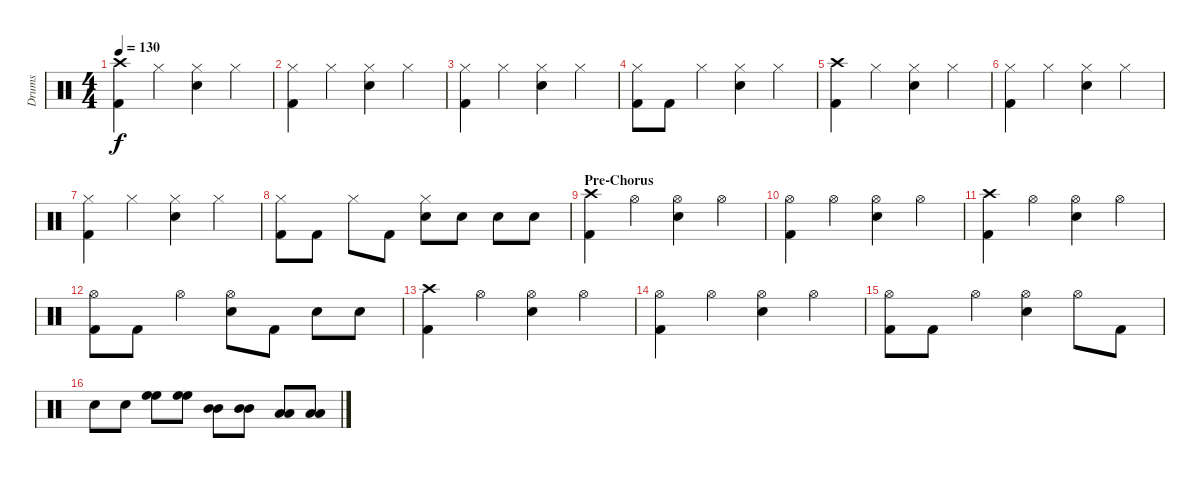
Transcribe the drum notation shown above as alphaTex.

\track ("Drums" "Drums") {instrument percussion}
\staff {score}
\articulation defaults
\ts (4 4)
\tempo 130
\clef neutral
\ks c
("Crash high (hit)" "Kick (hit) 2").4{dy f} "Hi-Hat (closed)".4 ("Hi-Hat (closed)" "Snare (hit) 2").4 "Hi-Hat (closed)".4 |
("Hi-Hat (closed)" "Kick (hit) 2").4 "Hi-Hat (closed)".4 ("Hi-Hat (closed)" "Snare (hit) 2").4 "Hi-Hat (closed)".4 |
("Hi-Hat (closed)" "Kick (hit) 2").4 "Hi-Hat (closed)".4 ("Hi-Hat (closed)" "Snare (hit) 2").4 "Hi-Hat (closed)".4 |
("Hi-Hat (closed)" "Kick (hit) 2").8 "Kick (hit) 2".8 "Hi-Hat (closed)".4 ("Hi-Hat (closed)" "Snare (hit) 2").4 "Hi-Hat (closed)".4 |
("Crash high (hit)" "Kick (hit) 2").4 "Hi-Hat (closed)".4 ("Hi-Hat (closed)" "Snare (hit) 2").4 "Hi-Hat (closed)".4 |
("Hi-Hat (closed)" "Kick (hit) 2").4 "Hi-Hat (closed)".4 ("Hi-Hat (closed)" "Snare (hit) 2").4 "Hi-Hat (closed)".4 |
("Hi-Hat (closed)" "Kick (hit) 2").4 "Hi-Hat (closed)".4 ("Hi-Hat (closed)" "Snare (hit) 2").4 "Hi-Hat (closed)".4 |
("Hi-Hat (closed)" "Kick (hit) 2").8 "Kick (hit) 2".8 "Hi-Hat (closed)".8 "Kick (hit) 2".8 ("Hi-Hat (closed)" "Snare (hit) 2").8 "Snare (hit) 2".8 "Snare (hit) 2".8 "Snare (hit) 2".8 |
\section ("" "Pre-Chorus")
("Crash high (hit)" "Kick (hit) 2").4 "Hi-Hat (open)".4 ("Hi-Hat (open)" "Snare (hit) 2").4 "Hi-Hat (open)".4 |
("Hi-Hat (open)" "Kick (hit) 2").4 "Hi-Hat (open)".4 ("Hi-Hat (open)" "Snare (hit) 2").4 "Hi-Hat (open)".4 |
("Crash high (hit)" "Kick (hit) 2").4 "Hi-Hat (open)".4 ("Hi-Hat (open)" "Snare (hit) 2").4 "Hi-Hat (open)".4 |
("Hi-Hat (open)" "Kick (hit) 2").8 "Kick (hit) 2".8 "Hi-Hat (open)".4 ("Hi-Hat (open)" "Snare (hit) 2").8 "Kick (hit) 2".8 "Snare (hit) 2".8 "Snare (hit) 2".8 |
("Crash high (hit)" "Kick (hit) 2").4 "Hi-Hat (open)".4 ("Hi-Hat (open)" "Snare (hit) 2").4 "Hi-Hat (open)".4 |
("Hi-Hat (open)" "Kick (hit) 2").4 "Hi-Hat (open)".4 ("Hi-Hat (open)" "Snare (hit) 2").4 "Hi-Hat (open)".4 |
("Hi-Hat (open)" "Kick (hit) 2").8 "Kick (hit) 2".8 "Hi-Hat (open)".4 ("Hi-Hat (open)" "Snare (hit) 2").4 "Hi-Hat (open)".8 "Kick (hit) 2".8 |
"Snare (hit) 2".8 "Snare (hit) 2".8 ("High Floor Tom (hit)" "High Floor Tom (hit)").8 ("High Floor Tom (hit)" "High Floor Tom (hit)").8 ("Mid Tom (hit)" "Mid Tom (hit)").8 ("Mid Tom (hit)" "Mid Tom (hit)").8 ("Low Tom (hit)" "Low Tom (hit)").8 ("Low Tom (hit)" "Low Tom (hit)").8
